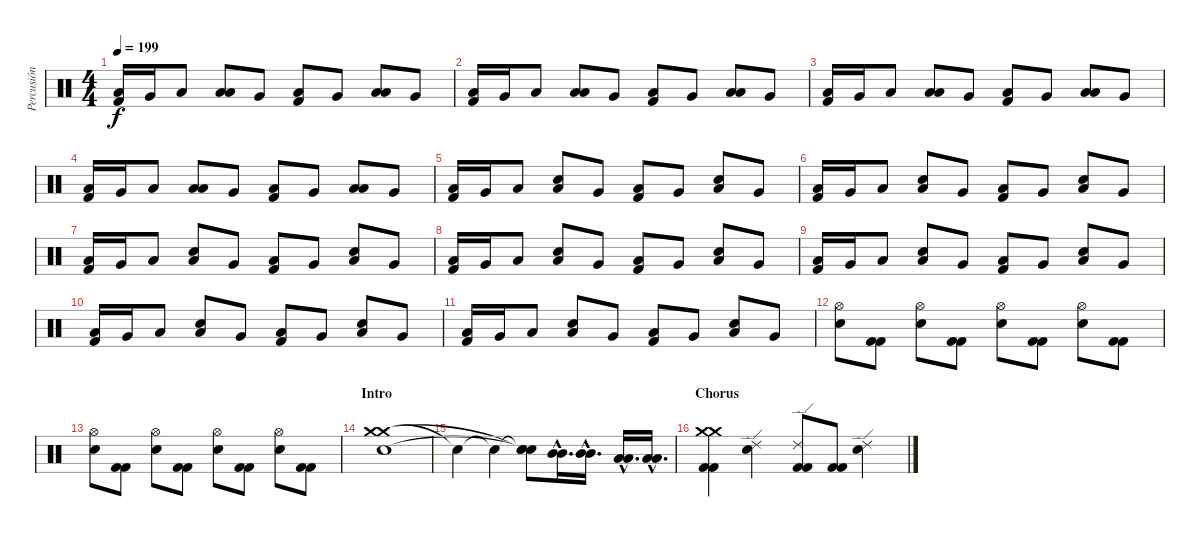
\track ("Percusión" "Percusión") {instrument percussion}
\staff {score}
\articulation defaults
\ts (4 4)
\tempo 199
\clef neutral
\ks c
("Kick (hit) 2" "Low Floor Tom (hit)").16{dy f} "Very Low Tom (hit)".16 "Low Floor Tom (hit)".8 ("Low Tom (hit)" "Low Floor Tom (hit)").8 "Very Low Tom (hit)".8 ("Kick (hit) 2" "Low Floor Tom (hit)").8 "Very Low Tom (hit)".8 ("Low Tom (hit)" "Low Floor Tom (hit)").8 "Very Low Tom (hit)".8 |
("Kick (hit) 2" "Low Floor Tom (hit)").16 "Very Low Tom (hit)".16 "Low Floor Tom (hit)".8 ("Low Tom (hit)" "Low Floor Tom (hit)").8 "Very Low Tom (hit)".8 ("Kick (hit) 2" "Low Floor Tom (hit)").8 "Very Low Tom (hit)".8 ("Low Tom (hit)" "Low Floor Tom (hit)").8 "Very Low Tom (hit)".8 |
("Kick (hit) 2" "Low Floor Tom (hit)").16 "Very Low Tom (hit)".16 "Low Floor Tom (hit)".8 ("Low Tom (hit)" "Low Floor Tom (hit)").8 "Very Low Tom (hit)".8 ("Kick (hit) 2" "Low Floor Tom (hit)").8 "Very Low Tom (hit)".8 ("Low Tom (hit)" "Low Floor Tom (hit)").8 "Very Low Tom (hit)".8 |
("Kick (hit) 2" "Low Floor Tom (hit)").16 "Very Low Tom (hit)".16 "Low Floor Tom (hit)".8 ("Low Tom (hit)" "Low Floor Tom (hit)").8 "Very Low Tom (hit)".8 ("Kick (hit) 2" "Low Floor Tom (hit)").8 "Very Low Tom (hit)".8 ("Low Tom (hit)" "Low Floor Tom (hit)").8 "Very Low Tom (hit)".8 |
("Kick (hit) 2" "Low Floor Tom (hit)").16 "Very Low Tom (hit)".16 "Low Floor Tom (hit)".8 ("Electric Snare (hit)" "Low Floor Tom (hit)").8 "Very Low Tom (hit)".8 ("Kick (hit) 2" "Low Floor Tom (hit)").8 "Very Low Tom (hit)".8 ("Electric Snare (hit)" "Low Floor Tom (hit)").8 "Very Low Tom (hit)".8 |
("Kick (hit) 2" "Low Floor Tom (hit)").16 "Very Low Tom (hit)".16 "Low Floor Tom (hit)".8 ("Electric Snare (hit)" "Low Floor Tom (hit)").8 "Very Low Tom (hit)".8 ("Kick (hit) 2" "Low Floor Tom (hit)").8 "Very Low Tom (hit)".8 ("Electric Snare (hit)" "Low Floor Tom (hit)").8 "Very Low Tom (hit)".8 |
("Kick (hit) 2" "Low Floor Tom (hit)").16 "Very Low Tom (hit)".16 "Low Floor Tom (hit)".8 ("Electric Snare (hit)" "Low Floor Tom (hit)").8 "Very Low Tom (hit)".8 ("Kick (hit) 2" "Low Floor Tom (hit)").8 "Very Low Tom (hit)".8 ("Electric Snare (hit)" "Low Floor Tom (hit)").8 "Very Low Tom (hit)".8 |
("Kick (hit) 2" "Low Floor Tom (hit)").16 "Very Low Tom (hit)".16 "Low Floor Tom (hit)".8 ("Electric Snare (hit)" "Low Floor Tom (hit)").8 "Very Low Tom (hit)".8 ("Kick (hit) 2" "Low Floor Tom (hit)").8 "Very Low Tom (hit)".8 ("Electric Snare (hit)" "Low Floor Tom (hit)").8 "Very Low Tom (hit)".8 |
("Kick (hit) 2" "Low Floor Tom (hit)").16 "Very Low Tom (hit)".16 "Low Floor Tom (hit)".8 ("Electric Snare (hit)" "Low Floor Tom (hit)").8 "Very Low Tom (hit)".8 ("Kick (hit) 2" "Low Floor Tom (hit)").8 "Very Low Tom (hit)".8 ("Electric Snare (hit)" "Low Floor Tom (hit)").8 "Very Low Tom (hit)".8 |
("Kick (hit) 2" "Low Floor Tom (hit)").16 "Very Low Tom (hit)".16 "Low Floor Tom (hit)".8 ("Electric Snare (hit)" "Low Floor Tom (hit)").8 "Very Low Tom (hit)".8 ("Kick (hit) 2" "Low Floor Tom (hit)").8 "Very Low Tom (hit)".8 ("Electric Snare (hit)" "Low Floor Tom (hit)").8 "Very Low Tom (hit)".8 |
("Kick (hit) 2" "Low Floor Tom (hit)").16 "Very Low Tom (hit)".16 "Low Floor Tom (hit)".8 ("Electric Snare (hit)" "Low Floor Tom (hit)").8 "Very Low Tom (hit)".8 ("Kick (hit) 2" "Low Floor Tom (hit)").8 "Very Low Tom (hit)".8 ("Electric Snare (hit)" "Low Floor Tom (hit)").8 "Very Low Tom (hit)".8 |
("Hi-Hat (open)" "Electric Snare (hit)").8 ("Kick (hit) 2" "Kick (hit) 2").8 ("Hi-Hat (open)" "Electric Snare (hit)").8 ("Kick (hit) 2" "Kick (hit) 2").8 ("Hi-Hat (open)" "Electric Snare (hit)").8 ("Kick (hit) 2" "Kick (hit) 2").8 ("Hi-Hat (open)" "Electric Snare (hit)").8 ("Kick (hit) 2" "Kick (hit) 2").8 |
("Hi-Hat (open)" "Electric Snare (hit)").8 ("Kick (hit) 2" "Kick (hit) 2").8 ("Hi-Hat (open)" "Electric Snare (hit)").8 ("Kick (hit) 2" "Kick (hit) 2").8 ("Hi-Hat (open)" "Electric Snare (hit)").8 ("Kick (hit) 2" "Kick (hit) 2").8 ("Hi-Hat (open)" "Electric Snare (hit)").8 ("Kick (hit) 2" "Kick (hit) 2").8 |
\section ("" "Intro")
("Crash medium (hit)" "Electric Snare (hit)" "Crash medium (hit)").1 |
"Snare (hit)"{t}.4 "Snare (hit)"{t}.4 ("Snare (hit)"{t} "Snare (hit)"{t} "Snare (hit)"{t}).8 ("Mid Tom (hit)"{hac} "Mid Tom (hit)"{hac}).16{d} ("Mid Tom (hit)"{hac} "Mid Tom (hit)"{hac}).16{d} ("Low Tom (hit)"{hac} "Low Tom (hit)"{hac}).16{d} ("Low Tom (hit)"{hac} "Low Tom (hit)"{hac}).16{d} |
\section ("" "Chorus")
("Crash medium (hit)" "Kick (hit) 2" "Kick (hit) 2" "Crash medium (hit)").4 ("Ride (edge) 2" "Electric Snare (hit)").4 ("Ride (edge) 2" "Kick (hit) 2" "Kick (hit) 2").8 ("Kick (hit) 2" "Kick (hit) 2").8 ("Ride (edge) 2" "Electric Snare (hit)").4
